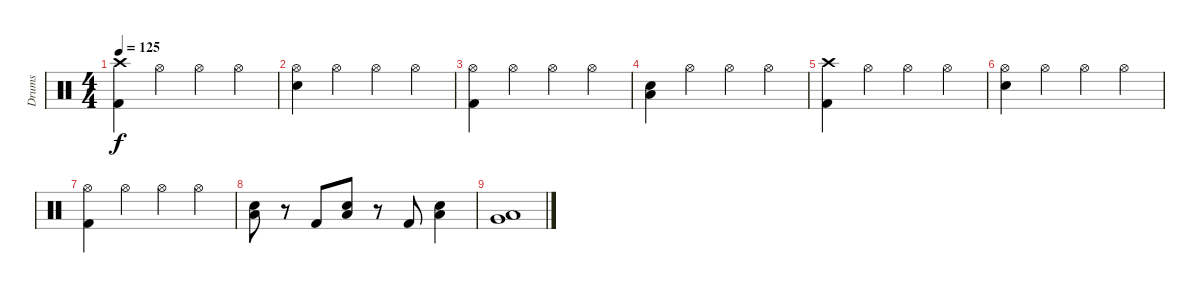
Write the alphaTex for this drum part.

\track ("Drums" "Drums") {instrument percussion}
\staff {score}
\articulation defaults
\ts (4 4)
\tempo 125
\clef neutral
\ks c
("Crash high (hit)" "Kick (hit) 2").4{dy f} "Hi-Hat (open)".4 "Hi-Hat (open)".4 "Hi-Hat (open)".4 |
("Hi-Hat (open)" "Snare (hit) 2").4 "Hi-Hat (open)".4 "Hi-Hat (open)".4 "Hi-Hat (open)".4 |
("Hi-Hat (open)" "Kick (hit) 2").4 "Hi-Hat (open)".4 "Hi-Hat (open)".4 "Hi-Hat (open)".4 |
("Low Floor Tom (hit)" "Snare (hit) 2").4 "Hi-Hat (open)".4 "Hi-Hat (open)".4 "Hi-Hat (open)".4 |
("Crash high (hit)" "Kick (hit) 2").4 "Hi-Hat (open)".4 "Hi-Hat (open)".4 "Hi-Hat (open)".4 |
("Hi-Hat (open)" "Snare (hit) 2").4 "Hi-Hat (open)".4 "Hi-Hat (open)".4 "Hi-Hat (open)".4 |
("Hi-Hat (open)" "Kick (hit) 2").4 "Hi-Hat (open)".4 "Hi-Hat (open)".4 "Hi-Hat (open)".4 |
("Low Floor Tom (hit)" "Snare (hit) 2").8 r.8 "Kick (hit) 2".8 ("Low Floor Tom (hit)" "Snare (hit) 2").8 r.8 "Kick (hit) 2".8 ("Low Floor Tom (hit)" "Snare (hit) 2").4 |
("Low Floor Tom (hit)" "Very Low Tom (hit)").1
